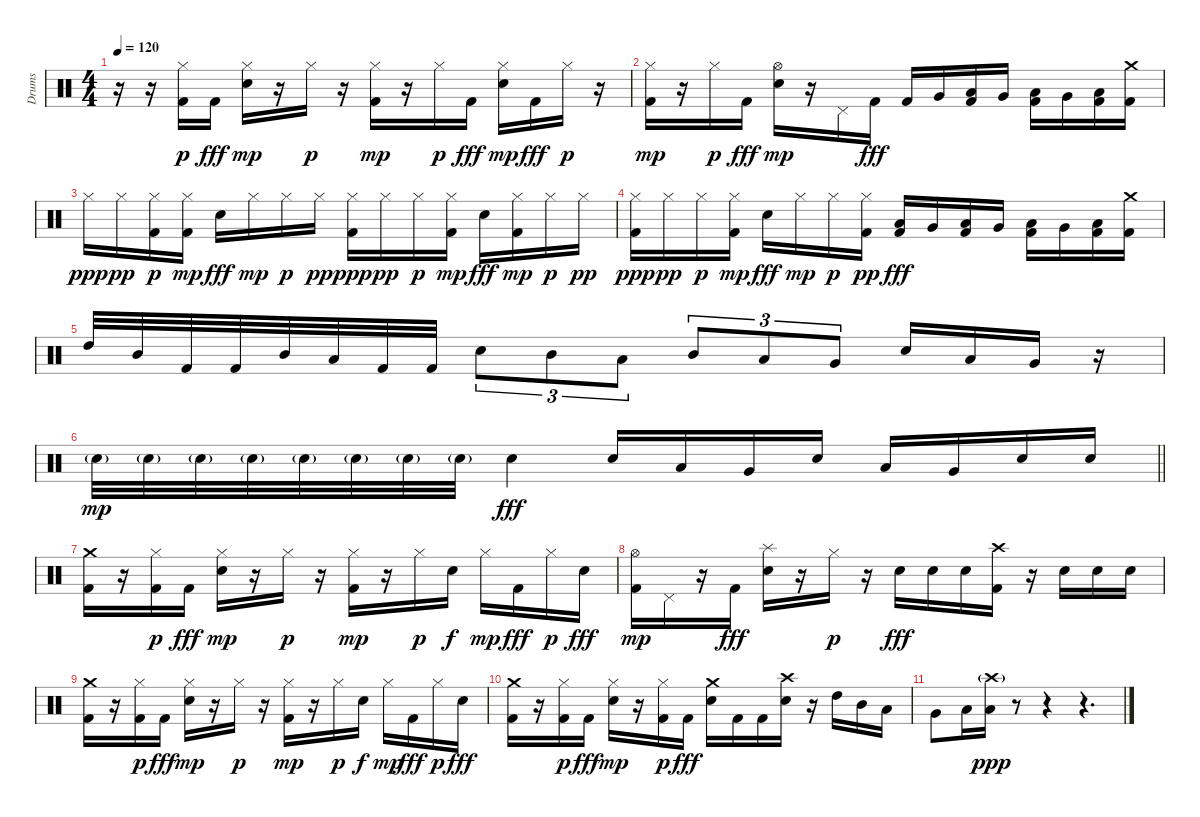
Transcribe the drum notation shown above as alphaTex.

\track ("Drums" "Drums") {instrument percussion}
\staff {score}
\articulation defaults
\ts (4 4)
\tempo 120
\clef neutral
\ks c
r.16{dy fff} r.16 ("Kick (hit) 2" "Hi-Hat (closed)").16{dy p} "Kick (hit) 2".16{dy fff} ("Electric Snare (hit)" "Hi-Hat (closed)").16{dy mp} r.16 "Hi-Hat (closed)".16{dy p} r.16 ("Kick (hit) 2" "Hi-Hat (closed)").16{dy mp} r.16 "Hi-Hat (closed)".16{dy p} "Kick (hit) 2".16{dy fff} ("Electric Snare (hit)" "Hi-Hat (closed)").16{dy mp} "Kick (hit) 2".16{dy fff} "Hi-Hat (closed)".16{dy p} r.16 |
("Kick (hit) 2" "Hi-Hat (closed)").16{dy mp} r.16 "Hi-Hat (closed)".16{dy p} "Kick (hit) 2".16{dy fff} ("Electric Snare (hit)" "Hi-Hat (open)").16{dy mp} r.16 "Pedal Hi-Hat (hit)".16 "Kick (hit) 2".16{dy fff} "Kick (hit) 2".16 "Very Low Tom (hit)".16 ("Kick (hit) 2" "Low Tom (hit)").16 "Very Low Tom (hit)".16 ("Kick (hit) 2" "Low Tom (hit)").16 "Very Low Tom (hit)".16 ("Kick (hit) 2" "Low Tom (hit)").16 ("Kick (hit) 2" "Crash medium (hit)").16 |
"Hi-Hat (closed)".16{dy ppp} "Hi-Hat (closed)".16{dy pp} ("Kick (hit) 2" "Hi-Hat (closed)").16{dy p} ("Kick (hit) 2" "Hi-Hat (closed)").16{dy mp} "Electric Snare (hit)".16{dy fff} "Hi-Hat (closed)".16{dy mp} "Hi-Hat (closed)".16{dy p} "Hi-Hat (closed)".16{dy pp} ("Kick (hit) 2" "Hi-Hat (closed)").16{dy ppp} "Hi-Hat (closed)".16{dy pp} "Hi-Hat (closed)".16{dy p} ("Kick (hit) 2" "Hi-Hat (closed)").16{dy mp} "Electric Snare (hit)".16{dy fff} ("Kick (hit) 2" "Hi-Hat (closed)").16{dy mp} "Hi-Hat (closed)".16{dy p} "Hi-Hat (closed)".16{dy pp} |
("Kick (hit) 2" "Hi-Hat (closed)").16{dy ppp} "Hi-Hat (closed)".16{dy pp} "Hi-Hat (closed)".16{dy p} ("Kick (hit) 2" "Hi-Hat (closed)").16{dy mp} "Electric Snare (hit)".16{dy fff} "Hi-Hat (closed)".16{dy mp} "Hi-Hat (closed)".16{dy p} ("Kick (hit) 2" "Hi-Hat (closed)").16{dy pp} ("Kick (hit) 2" "Low Tom (hit)").16{dy fff} "Very Low Tom (hit)".16 ("Kick (hit) 2" "Low Tom (hit)").16 "Very Low Tom (hit)".16 ("Kick (hit) 2" "Low Tom (hit)").16 "Very Low Tom (hit)".16 ("Kick (hit) 2" "Low Tom (hit)").16 ("Kick (hit) 2" "Crash medium (hit)").16 |
"High Tom (hit)".32 "Mid Tom (hit)".32 "Kick (hit) 2".32 "Kick (hit) 2".32 "Mid Tom (hit)".32 "Low Tom (hit)".32 "Kick (hit) 2".32 "Kick (hit) 2".32 "Electric Snare (hit)".8{tu (3 2)} "Mid Tom (hit)".8{tu (3 2)} "Low Tom (hit)".8{tu (3 2)} "Mid Tom (hit)".8{tu (3 2)} "Low Tom (hit)".8{tu (3 2)} "Very Low Tom (hit)".8{tu (3 2)} "Electric Snare (hit)".16 "Low Tom (hit)".16 "Very Low Tom (hit)".16 r.16 |
\barLineRight lightlight "Electric Snare (hit)"{g}.32{dy mp} "Electric Snare (hit)"{g}.32 "Electric Snare (hit)"{g}.32 "Electric Snare (hit)"{g}.32 "Electric Snare (hit)"{g}.32 "Electric Snare (hit)"{g}.32 "Electric Snare (hit)"{g}.32 "Electric Snare (hit)"{g}.32 "Electric Snare (hit)".4{dy fff} "Electric Snare (hit)".16 "Low Tom (hit)".16 "Very Low Tom (hit)".16 "Electric Snare (hit)".16 "Low Tom (hit)".16 "Very Low Tom (hit)".16 "Electric Snare (hit)".16 "Electric Snare (hit)".16
|
("Kick (hit) 2" "Crash medium (hit)").16 r.16 ("Kick (hit) 2" "Hi-Hat (closed)").16{dy p} "Kick (hit) 2".16{dy fff} ("Electric Snare (hit)" "Hi-Hat (closed)").16{dy mp} r.16 "Hi-Hat (closed)".16{dy p} r.16 ("Kick (hit) 2" "Hi-Hat (closed)").16{dy mp} r.16 "Hi-Hat (closed)".16{dy p} "Electric Snare (hit)".16{dy f} "Hi-Hat (closed)".16{dy mp} "Kick (hit) 2".16{dy fff} "Hi-Hat (closed)".16{dy p} "Electric Snare (hit)".16{dy fff} |
("Kick (hit) 2" "Hi-Hat (open)").16{dy mp} "Pedal Hi-Hat (hit)".16 r.16 "Kick (hit) 2".16{dy fff} ("Electric Snare (hit)" "Splash (hit)").16 r.16 "Hi-Hat (closed)".16{dy p} r.16 "Electric Snare (hit)".16{dy fff} "Electric Snare (hit)".16 "Electric Snare (hit)".16 ("Kick (hit) 2" "Crash high (hit)").16 r.16 "Electric Snare (hit)".16 "Electric Snare (hit)".16 "Electric Snare (hit)".16 |
("Kick (hit) 2" "Crash medium (hit)").16 r.16 ("Kick (hit) 2" "Hi-Hat (closed)").16{dy p} "Kick (hit) 2".16{dy fff} ("Electric Snare (hit)" "Hi-Hat (closed)").16{dy mp} r.16 "Hi-Hat (closed)".16{dy p} r.16 ("Kick (hit) 2" "Hi-Hat (closed)").16{dy mp} r.16 "Hi-Hat (closed)".16{dy p} "Electric Snare (hit)".16{dy f} "Hi-Hat (closed)".16{dy mp} "Kick (hit) 2".16{dy fff} "Hi-Hat (closed)".16{dy p} "Electric Snare (hit)".16{dy fff} |
("Kick (hit) 2" "Crash medium (hit)").16 r.16 ("Kick (hit) 2" "Hi-Hat (closed)").16{dy p} "Kick (hit) 2".16{dy fff} ("Electric Snare (hit)" "Hi-Hat (closed)").16{dy mp} r.16 ("Kick (hit) 2" "Hi-Hat (closed)").16{dy p} "Kick (hit) 2".16{dy fff} ("Electric Snare (hit)" "Crash medium (hit)").16 "Kick (hit) 2".16 "Kick (hit) 2".16 ("Electric Snare (hit)" "Crash high (hit)").16 r.16 "High Tom (hit)".16 "Mid Tom (hit)".16 "Low Tom (hit)".16 |
"Very Low Tom (hit)".8 "Low Tom (hit)".16 ("Low Tom (hit)" "Crash high (hit)"{g}).16{dy ppp} r.8 r.4 r.4{d}
